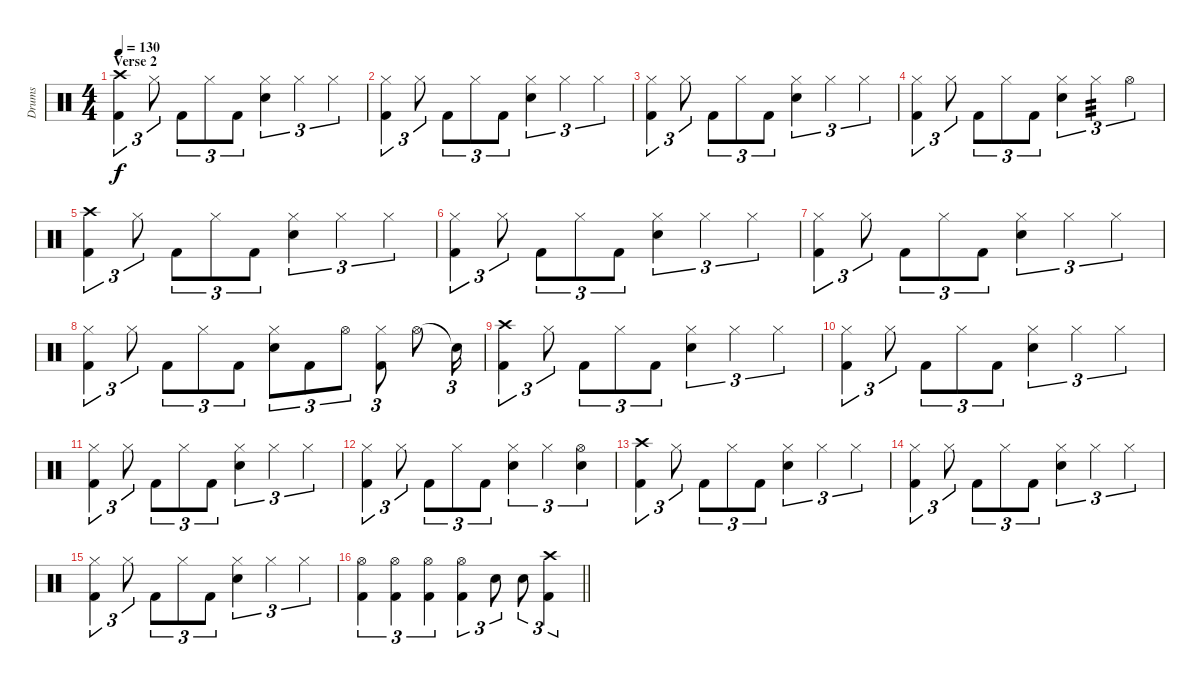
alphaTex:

\track ("Drums" "Drums") {instrument percussion}
\staff {score}
\articulation defaults
\ts (4 4)
\section ("" "Verse 2")
\tempo 130
\clef neutral
\ks c
("Crash high (hit)" "Kick (hit) 2").4{tu (3 2) dy f} "Hi-Hat (closed)".8{tu (3 2)} "Kick (hit) 2".8{tu (3 2)} "Hi-Hat (closed)".8{tu (3 2)} "Kick (hit) 2".8{tu (3 2)} ("Hi-Hat (closed)" "Electric Snare (hit)").4{tu (3 2)} "Hi-Hat (closed)".4{tu (3 2)} "Hi-Hat (closed)".4{tu (3 2)} |
("Hi-Hat (closed)" "Kick (hit) 2").4{tu (3 2)} "Hi-Hat (closed)".8{tu (3 2)} "Kick (hit) 2".8{tu (3 2)} "Hi-Hat (closed)".8{tu (3 2)} "Kick (hit) 2".8{tu (3 2)} ("Hi-Hat (closed)" "Electric Snare (hit)").4{tu (3 2)} "Hi-Hat (closed)".4{tu (3 2)} "Hi-Hat (closed)".4{tu (3 2)} |
("Hi-Hat (closed)" "Kick (hit) 2").4{tu (3 2)} "Hi-Hat (closed)".8{tu (3 2)} "Kick (hit) 2".8{tu (3 2)} "Hi-Hat (closed)".8{tu (3 2)} "Kick (hit) 2".8{tu (3 2)} ("Hi-Hat (closed)" "Electric Snare (hit)").4{tu (3 2)} "Hi-Hat (closed)".4{tu (3 2)} "Hi-Hat (closed)".4{tu (3 2)} |
("Hi-Hat (closed)" "Kick (hit) 2").4{tu (3 2)} "Hi-Hat (closed)".8{tu (3 2)} "Kick (hit) 2".8{tu (3 2)} "Hi-Hat (closed)".8{tu (3 2)} "Kick (hit) 2".8{tu (3 2)} ("Hi-Hat (closed)" "Electric Snare (hit)").4{tu (3 2)} "Hi-Hat (closed)".4{tu (3 2) tp 3} "Hi-Hat (open)".4{tu (3 2)} |
("Crash high (hit)" "Kick (hit) 2").4{tu (3 2)} "Hi-Hat (closed)".8{tu (3 2)} "Kick (hit) 2".8{tu (3 2)} "Hi-Hat (closed)".8{tu (3 2)} "Kick (hit) 2".8{tu (3 2)} ("Hi-Hat (closed)" "Electric Snare (hit)").4{tu (3 2)} "Hi-Hat (closed)".4{tu (3 2)} "Hi-Hat (closed)".4{tu (3 2)} |
("Hi-Hat (closed)" "Kick (hit) 2").4{tu (3 2)} "Hi-Hat (closed)".8{tu (3 2)} "Kick (hit) 2".8{tu (3 2)} "Hi-Hat (closed)".8{tu (3 2)} "Kick (hit) 2".8{tu (3 2)} ("Hi-Hat (closed)" "Electric Snare (hit)").4{tu (3 2)} "Hi-Hat (closed)".4{tu (3 2)} "Hi-Hat (closed)".4{tu (3 2)} |
("Hi-Hat (closed)" "Kick (hit) 2").4{tu (3 2)} "Hi-Hat (closed)".8{tu (3 2)} "Kick (hit) 2".8{tu (3 2)} "Hi-Hat (closed)".8{tu (3 2)} "Kick (hit) 2".8{tu (3 2)} ("Hi-Hat (closed)" "Electric Snare (hit)").4{tu (3 2)} "Hi-Hat (closed)".4{tu (3 2)} "Hi-Hat (closed)".4{tu (3 2)} |
("Hi-Hat (closed)" "Kick (hit) 2").4{tu (3 2)} "Hi-Hat (closed)".8{tu (3 2)} "Kick (hit) 2".8{tu (3 2)} "Hi-Hat (closed)".8{tu (3 2)} "Kick (hit) 2".8{tu (3 2)} ("Hi-Hat (closed)" "Electric Snare (hit)").8{tu (3 2)} "Kick (hit) 2".8{tu (3 2)} "Hi-Hat (open)".8{tu (3 2)} ("Hi-Hat (closed)" "Kick (hit) 2").8{tu (3 2)} "Hi-Hat (open)".8 "Snare (hit)"{t}.16{tu (3 2)} |
("Crash high (hit)" "Kick (hit) 2").4{tu (3 2)} "Hi-Hat (closed)".8{tu (3 2)} "Kick (hit) 2".8{tu (3 2)} "Hi-Hat (closed)".8{tu (3 2)} "Kick (hit) 2".8{tu (3 2)} ("Hi-Hat (closed)" "Electric Snare (hit)").4{tu (3 2)} "Hi-Hat (closed)".4{tu (3 2)} "Hi-Hat (closed)".4{tu (3 2)} |
("Hi-Hat (closed)" "Kick (hit) 2").4{tu (3 2)} "Hi-Hat (closed)".8{tu (3 2)} "Kick (hit) 2".8{tu (3 2)} "Hi-Hat (closed)".8{tu (3 2)} "Kick (hit) 2".8{tu (3 2)} ("Hi-Hat (closed)" "Electric Snare (hit)").4{tu (3 2)} "Hi-Hat (closed)".4{tu (3 2)} "Hi-Hat (closed)".4{tu (3 2)} |
("Hi-Hat (closed)" "Kick (hit) 2").4{tu (3 2)} "Hi-Hat (closed)".8{tu (3 2)} "Kick (hit) 2".8{tu (3 2)} "Hi-Hat (closed)".8{tu (3 2)} "Kick (hit) 2".8{tu (3 2)} ("Hi-Hat (closed)" "Electric Snare (hit)").4{tu (3 2)} "Hi-Hat (closed)".4{tu (3 2)} "Hi-Hat (closed)".4{tu (3 2)} |
("Hi-Hat (closed)" "Kick (hit) 2").4{tu (3 2)} "Hi-Hat (closed)".8{tu (3 2)} "Kick (hit) 2".8{tu (3 2)} "Hi-Hat (closed)".8{tu (3 2)} "Kick (hit) 2".8{tu (3 2)} ("Hi-Hat (closed)" "Electric Snare (hit)").4{tu (3 2)} "Hi-Hat (closed)".4{tu (3 2)} ("Hi-Hat (open)" "Electric Snare (hit)").4{tu (3 2)} |
("Crash high (hit)" "Kick (hit) 2").4{tu (3 2)} "Hi-Hat (closed)".8{tu (3 2)} "Kick (hit) 2".8{tu (3 2)} "Hi-Hat (closed)".8{tu (3 2)} "Kick (hit) 2".8{tu (3 2)} ("Hi-Hat (closed)" "Electric Snare (hit)").4{tu (3 2)} "Hi-Hat (closed)".4{tu (3 2)} "Hi-Hat (closed)".4{tu (3 2)} |
("Hi-Hat (closed)" "Kick (hit) 2").4{tu (3 2)} "Hi-Hat (closed)".8{tu (3 2)} "Kick (hit) 2".8{tu (3 2)} "Hi-Hat (closed)".8{tu (3 2)} "Kick (hit) 2".8{tu (3 2)} ("Hi-Hat (closed)" "Electric Snare (hit)").4{tu (3 2)} "Hi-Hat (closed)".4{tu (3 2)} "Hi-Hat (closed)".4{tu (3 2)} |
("Hi-Hat (closed)" "Kick (hit) 2").4{tu (3 2)} "Hi-Hat (closed)".8{tu (3 2)} "Kick (hit) 2".8{tu (3 2)} "Hi-Hat (closed)".8{tu (3 2)} "Kick (hit) 2".8{tu (3 2)} ("Hi-Hat (closed)" "Electric Snare (hit)").4{tu (3 2)} "Hi-Hat (closed)".4{tu (3 2)} "Hi-Hat (closed)".4{tu (3 2)} |
\barLineRight lightlight
("Hi-Hat (open)" "Kick (hit) 2").4{tu (3 2)} ("Hi-Hat (open)" "Kick (hit) 2").4{tu (3 2)} ("Hi-Hat (open)" "Kick (hit) 2").4{tu (3 2)} ("Hi-Hat (open)" "Kick (hit) 2").4{tu (3 2)} "Electric Snare (hit)".8{tu (3 2)} "Electric Snare (hit)".8{tu (3 2)} ("Crash high (hit)" "Kick (hit) 2").4{tu (3 2)}
